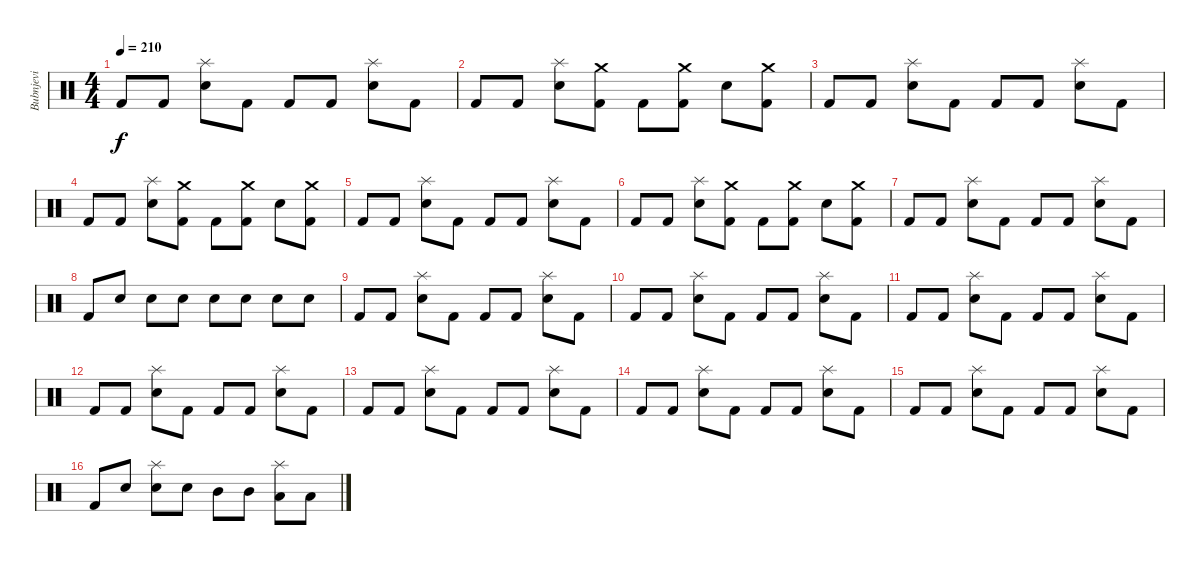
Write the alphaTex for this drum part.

\track ("Bubnjevi" "Bubnjevi") {instrument percussion}
\staff {score}
\articulation defaults
\ts (4 4)
\tempo 210
\clef neutral
\ks c "Kick (hit) 2".8{dy f} "Kick (hit) 2".8
("Splash (hit)" "Electric Snare (hit)").8 "Kick (hit) 2".8 "Kick (hit) 2".8 "Kick (hit) 2".8 ("Splash (hit)" "Electric Snare (hit)").8 "Kick (hit) 2".8 |
"Kick (hit) 2".8 "Kick (hit) 2".8 ("Splash (hit)" "Electric Snare (hit)").8 ("Crash medium (hit)" "Kick (hit) 2").8 "Kick (hit) 2".8 ("Crash medium (hit)" "Kick (hit) 2").8 "Electric Snare (hit)".8 ("Crash medium (hit)" "Kick (hit) 2").8 |
"Kick (hit) 2".8 "Kick (hit) 2".8 ("Splash (hit)" "Electric Snare (hit)").8 "Kick (hit) 2".8 "Kick (hit) 2".8 "Kick (hit) 2".8 ("Splash (hit)" "Electric Snare (hit)").8 "Kick (hit) 2".8 |
"Kick (hit) 2".8 "Kick (hit) 2".8 ("Splash (hit)" "Electric Snare (hit)").8 ("Crash medium (hit)" "Kick (hit) 2").8 "Kick (hit) 2".8 ("Crash medium (hit)" "Kick (hit) 2").8 "Electric Snare (hit)".8 ("Crash medium (hit)" "Kick (hit) 2").8 |
"Kick (hit) 2".8 "Kick (hit) 2".8 ("Splash (hit)" "Electric Snare (hit)").8 "Kick (hit) 2".8 "Kick (hit) 2".8 "Kick (hit) 2".8 ("Splash (hit)" "Electric Snare (hit)").8 "Kick (hit) 2".8 |
"Kick (hit) 2".8 "Kick (hit) 2".8 ("Splash (hit)" "Electric Snare (hit)").8 ("Crash medium (hit)" "Kick (hit) 2").8 "Kick (hit) 2".8 ("Crash medium (hit)" "Kick (hit) 2").8 "Electric Snare (hit)".8 ("Crash medium (hit)" "Kick (hit) 2").8 |
"Kick (hit) 2".8 "Kick (hit) 2".8 ("Splash (hit)" "Electric Snare (hit)").8 "Kick (hit) 2".8 "Kick (hit) 2".8 "Kick (hit) 2".8 ("Splash (hit)" "Electric Snare (hit)").8 "Kick (hit) 2".8 |
"Kick (hit) 2".8 "Electric Snare (hit)".8 "Electric Snare (hit)".8 "Electric Snare (hit)".8 "Electric Snare (hit)".8 "Electric Snare (hit)".8 "Electric Snare (hit)".8 "Electric Snare (hit)".8 |
"Kick (hit) 2".8 "Kick (hit) 2".8 ("Splash (hit)" "Electric Snare (hit)").8 "Kick (hit) 2".8 "Kick (hit) 2".8 "Kick (hit) 2".8 ("Splash (hit)" "Electric Snare (hit)").8 "Kick (hit) 2".8 |
"Kick (hit) 2".8 "Kick (hit) 2".8 ("Splash (hit)" "Electric Snare (hit)").8 "Kick (hit) 2".8 "Kick (hit) 2".8 "Kick (hit) 2".8 ("Splash (hit)" "Electric Snare (hit)").8 "Kick (hit) 2".8 |
"Kick (hit) 2".8 "Kick (hit) 2".8 ("Splash (hit)" "Electric Snare (hit)").8 "Kick (hit) 2".8 "Kick (hit) 2".8 "Kick (hit) 2".8 ("Splash (hit)" "Electric Snare (hit)").8 "Kick (hit) 2".8 |
"Kick (hit) 2".8 "Kick (hit) 2".8 ("Splash (hit)" "Electric Snare (hit)").8 "Kick (hit) 2".8 "Kick (hit) 2".8 "Kick (hit) 2".8 ("Splash (hit)" "Electric Snare (hit)").8 "Kick (hit) 2".8 |
"Kick (hit) 2".8 "Kick (hit) 2".8 ("Splash (hit)" "Electric Snare (hit)").8 "Kick (hit) 2".8 "Kick (hit) 2".8 "Kick (hit) 2".8 ("Splash (hit)" "Electric Snare (hit)").8 "Kick (hit) 2".8 |
"Kick (hit) 2".8 "Kick (hit) 2".8 ("Splash (hit)" "Electric Snare (hit)").8 "Kick (hit) 2".8 "Kick (hit) 2".8 "Kick (hit) 2".8 ("Splash (hit)" "Electric Snare (hit)").8 "Kick (hit) 2".8 |
"Kick (hit) 2".8 "Kick (hit) 2".8 ("Splash (hit)" "Electric Snare (hit)").8 "Kick (hit) 2".8 "Kick (hit) 2".8 "Kick (hit) 2".8 ("Splash (hit)" "Electric Snare (hit)").8 "Kick (hit) 2".8 |
"Kick (hit) 2".8 "Electric Snare (hit)".8 ("Splash (hit)" "Electric Snare (hit)").8 "Electric Snare (hit)".8 "Mid Tom (hit)".8 "Mid Tom (hit)".8 ("Splash (hit)" "Low Tom (hit)").8 "Low Tom (hit)".8
